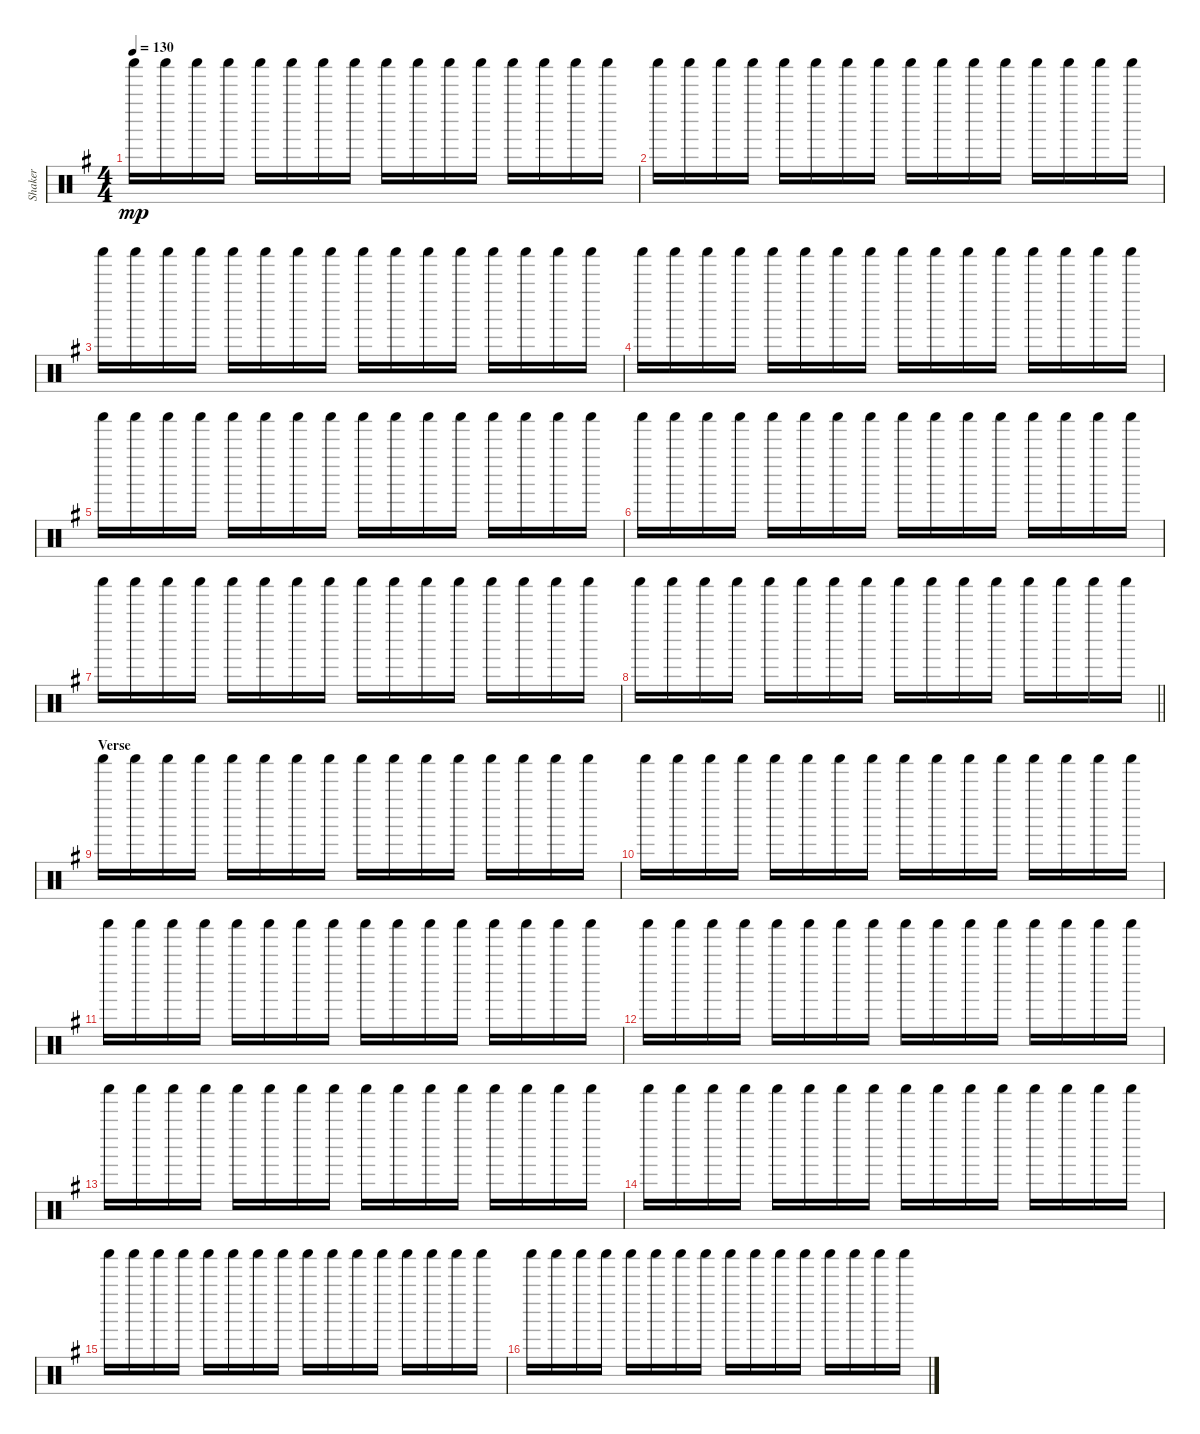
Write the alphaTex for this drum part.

\track ("Shaker" "Shaker") {instrument percussion}
\staff {score}
\articulation defaults
\ts (4 4)
\tempo 130
\clef neutral
\ks g "Shaker (hit)".16{dy mp} "Shaker (hit)".16 "Shaker (hit)".16 "Shaker (hit)".16 "Shaker (hit)".16 "Shaker (hit)".16 "Shaker (hit)".16 "Shaker (hit)".16 "Shaker (hit)".16 "Shaker (hit)".16 "Shaker (hit)".16 "Shaker (hit)".16 "Shaker (hit)".16 "Shaker (hit)".16 "Shaker (hit)".16 "Shaker (hit)".16
|
"Shaker (hit)".16 "Shaker (hit)".16 "Shaker (hit)".16 "Shaker (hit)".16 "Shaker (hit)".16 "Shaker (hit)".16 "Shaker (hit)".16 "Shaker (hit)".16 "Shaker (hit)".16 "Shaker (hit)".16 "Shaker (hit)".16 "Shaker (hit)".16 "Shaker (hit)".16 "Shaker (hit)".16 "Shaker (hit)".16 "Shaker (hit)".16 |
"Shaker (hit)".16 "Shaker (hit)".16 "Shaker (hit)".16 "Shaker (hit)".16 "Shaker (hit)".16 "Shaker (hit)".16 "Shaker (hit)".16 "Shaker (hit)".16 "Shaker (hit)".16 "Shaker (hit)".16 "Shaker (hit)".16 "Shaker (hit)".16 "Shaker (hit)".16 "Shaker (hit)".16 "Shaker (hit)".16 "Shaker (hit)".16 |
"Shaker (hit)".16 "Shaker (hit)".16 "Shaker (hit)".16 "Shaker (hit)".16 "Shaker (hit)".16 "Shaker (hit)".16 "Shaker (hit)".16 "Shaker (hit)".16 "Shaker (hit)".16 "Shaker (hit)".16 "Shaker (hit)".16 "Shaker (hit)".16 "Shaker (hit)".16 "Shaker (hit)".16 "Shaker (hit)".16 "Shaker (hit)".16 |
"Shaker (hit)".16 "Shaker (hit)".16 "Shaker (hit)".16 "Shaker (hit)".16 "Shaker (hit)".16 "Shaker (hit)".16 "Shaker (hit)".16 "Shaker (hit)".16 "Shaker (hit)".16 "Shaker (hit)".16 "Shaker (hit)".16 "Shaker (hit)".16 "Shaker (hit)".16 "Shaker (hit)".16 "Shaker (hit)".16 "Shaker (hit)".16 |
"Shaker (hit)".16 "Shaker (hit)".16 "Shaker (hit)".16 "Shaker (hit)".16 "Shaker (hit)".16 "Shaker (hit)".16 "Shaker (hit)".16 "Shaker (hit)".16 "Shaker (hit)".16 "Shaker (hit)".16 "Shaker (hit)".16 "Shaker (hit)".16 "Shaker (hit)".16 "Shaker (hit)".16 "Shaker (hit)".16 "Shaker (hit)".16 |
"Shaker (hit)".16 "Shaker (hit)".16 "Shaker (hit)".16 "Shaker (hit)".16 "Shaker (hit)".16 "Shaker (hit)".16 "Shaker (hit)".16 "Shaker (hit)".16 "Shaker (hit)".16 "Shaker (hit)".16 "Shaker (hit)".16 "Shaker (hit)".16 "Shaker (hit)".16 "Shaker (hit)".16 "Shaker (hit)".16 "Shaker (hit)".16 |
\barLineRight lightlight "Shaker (hit)".16 "Shaker (hit)".16 "Shaker (hit)".16 "Shaker (hit)".16 "Shaker (hit)".16 "Shaker (hit)".16 "Shaker (hit)".16 "Shaker (hit)".16 "Shaker (hit)".16 "Shaker (hit)".16 "Shaker (hit)".16 "Shaker (hit)".16 "Shaker (hit)".16 "Shaker (hit)".16 "Shaker (hit)".16 "Shaker (hit)".16
|
\section ("" "Verse")
"Shaker (hit)".16 "Shaker (hit)".16 "Shaker (hit)".16 "Shaker (hit)".16 "Shaker (hit)".16 "Shaker (hit)".16 "Shaker (hit)".16 "Shaker (hit)".16 "Shaker (hit)".16 "Shaker (hit)".16 "Shaker (hit)".16 "Shaker (hit)".16 "Shaker (hit)".16 "Shaker (hit)".16 "Shaker (hit)".16 "Shaker (hit)".16 |
"Shaker (hit)".16 "Shaker (hit)".16 "Shaker (hit)".16 "Shaker (hit)".16 "Shaker (hit)".16 "Shaker (hit)".16 "Shaker (hit)".16 "Shaker (hit)".16 "Shaker (hit)".16 "Shaker (hit)".16 "Shaker (hit)".16 "Shaker (hit)".16 "Shaker (hit)".16 "Shaker (hit)".16 "Shaker (hit)".16 "Shaker (hit)".16 |
"Shaker (hit)".16 "Shaker (hit)".16 "Shaker (hit)".16 "Shaker (hit)".16 "Shaker (hit)".16 "Shaker (hit)".16 "Shaker (hit)".16 "Shaker (hit)".16 "Shaker (hit)".16 "Shaker (hit)".16 "Shaker (hit)".16 "Shaker (hit)".16 "Shaker (hit)".16 "Shaker (hit)".16 "Shaker (hit)".16 "Shaker (hit)".16 |
"Shaker (hit)".16 "Shaker (hit)".16 "Shaker (hit)".16 "Shaker (hit)".16 "Shaker (hit)".16 "Shaker (hit)".16 "Shaker (hit)".16 "Shaker (hit)".16 "Shaker (hit)".16 "Shaker (hit)".16 "Shaker (hit)".16 "Shaker (hit)".16 "Shaker (hit)".16 "Shaker (hit)".16 "Shaker (hit)".16 "Shaker (hit)".16 |
"Shaker (hit)".16 "Shaker (hit)".16 "Shaker (hit)".16 "Shaker (hit)".16 "Shaker (hit)".16 "Shaker (hit)".16 "Shaker (hit)".16 "Shaker (hit)".16 "Shaker (hit)".16 "Shaker (hit)".16 "Shaker (hit)".16 "Shaker (hit)".16 "Shaker (hit)".16 "Shaker (hit)".16 "Shaker (hit)".16 "Shaker (hit)".16 |
"Shaker (hit)".16 "Shaker (hit)".16 "Shaker (hit)".16 "Shaker (hit)".16 "Shaker (hit)".16 "Shaker (hit)".16 "Shaker (hit)".16 "Shaker (hit)".16 "Shaker (hit)".16 "Shaker (hit)".16 "Shaker (hit)".16 "Shaker (hit)".16 "Shaker (hit)".16 "Shaker (hit)".16 "Shaker (hit)".16 "Shaker (hit)".16 |
"Shaker (hit)".16 "Shaker (hit)".16 "Shaker (hit)".16 "Shaker (hit)".16 "Shaker (hit)".16 "Shaker (hit)".16 "Shaker (hit)".16 "Shaker (hit)".16 "Shaker (hit)".16 "Shaker (hit)".16 "Shaker (hit)".16 "Shaker (hit)".16 "Shaker (hit)".16 "Shaker (hit)".16 "Shaker (hit)".16 "Shaker (hit)".16 |
"Shaker (hit)".16 "Shaker (hit)".16 "Shaker (hit)".16 "Shaker (hit)".16 "Shaker (hit)".16 "Shaker (hit)".16 "Shaker (hit)".16 "Shaker (hit)".16 "Shaker (hit)".16 "Shaker (hit)".16 "Shaker (hit)".16 "Shaker (hit)".16 "Shaker (hit)".16 "Shaker (hit)".16 "Shaker (hit)".16 "Shaker (hit)".16
